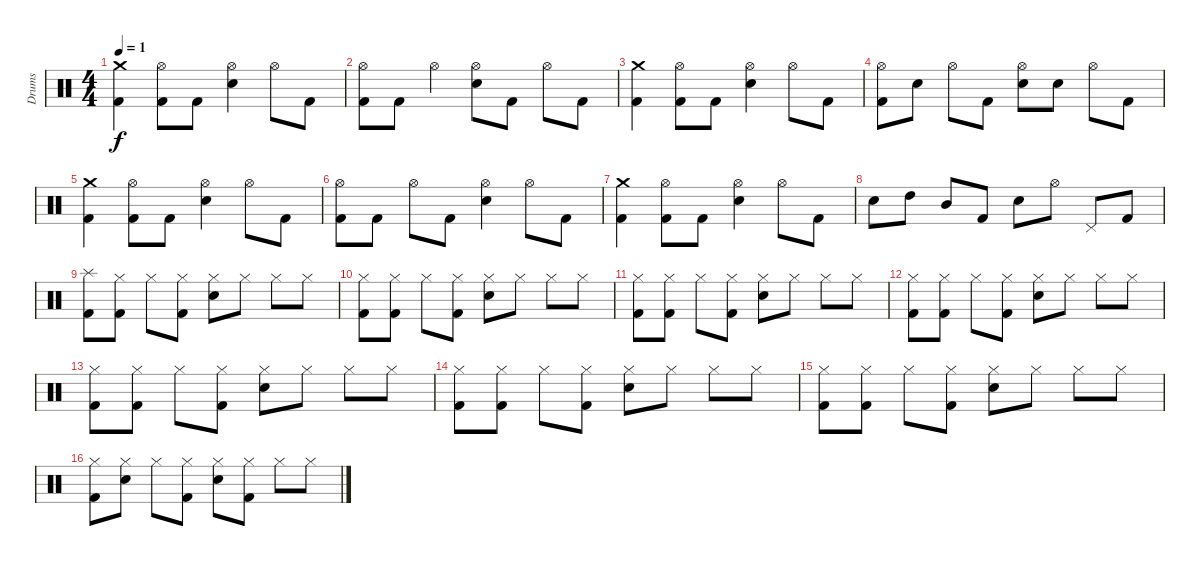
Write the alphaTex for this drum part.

\track ("Drums" "Drums") {instrument percussion}
\staff {score}
\articulation defaults
\ts (4 4)
\tempo 1
\clef neutral
\ks c
("Kick (hit) 2" "Crash medium (hit)").4{dy f} ("Hi-Hat (open)" "Kick (hit) 2").8 "Kick (hit) 2".8 ("Snare (hit) 2" "Hi-Hat (open)").4 "Hi-Hat (open)".8 "Kick (hit) 2".8 |
("Kick (hit) 2" "Hi-Hat (open)").8 "Kick (hit) 2".8 "Hi-Hat (open)".4 ("Snare (hit) 2" "Hi-Hat (open)").8 "Kick (hit) 2".8 "Hi-Hat (open)".8 "Kick (hit) 2".8 |
("Kick (hit) 2" "Crash medium (hit)").4 ("Hi-Hat (open)" "Kick (hit) 2").8 "Kick (hit) 2".8 ("Snare (hit) 2" "Hi-Hat (open)").4 "Hi-Hat (open)".8 "Kick (hit) 2".8 |
("Hi-Hat (open)" "Kick (hit) 2").8 "Snare (hit) 2".8 "Hi-Hat (open)".8 "Kick (hit) 2".8 ("Snare (hit) 2" "Hi-Hat (open)").8 "Snare (hit) 2".8 "Hi-Hat (open)".8 "Kick (hit) 2".8 |
("Kick (hit) 2" "Crash medium (hit)").4 ("Hi-Hat (open)" "Kick (hit) 2").8 "Kick (hit) 2".8 ("Snare (hit) 2" "Hi-Hat (open)").4 "Hi-Hat (open)".8 "Kick (hit) 2".8 |
("Kick (hit) 2" "Hi-Hat (open)").8 "Kick (hit) 2".8 "Hi-Hat (open)".8 "Kick (hit) 2".8 ("Snare (hit) 2" "Hi-Hat (open)").4 "Hi-Hat (open)".8 "Kick (hit) 2".8 |
("Kick (hit) 2" "Crash medium (hit)").4 ("Hi-Hat (open)" "Kick (hit) 2").8 "Kick (hit) 2".8 ("Snare (hit) 2" "Hi-Hat (open)").4 "Hi-Hat (open)".8 "Kick (hit) 2".8 |
"Snare (hit) 2".8 "High Tom (hit)".8 "Mid Tom (hit)".8 "Kick (hit) 2".8 "Snare (hit) 2".8 "Hi-Hat (open)".8 "Pedal Hi-Hat (hit)".8 "Kick (hit) 2".8 |
("Kick (hit) 2" "Splash (hit)").8 ("Hi-Hat (closed)" "Kick (hit) 2").8 "Hi-Hat (closed)".8 ("Hi-Hat (closed)" "Kick (hit) 2").8 ("Hi-Hat (closed)" "Snare (hit) 2").8 "Hi-Hat (closed)".8 "Hi-Hat (closed)".8 "Hi-Hat (closed)".8 |
("Hi-Hat (closed)" "Kick (hit) 2").8 ("Hi-Hat (closed)" "Kick (hit) 2").8 "Hi-Hat (closed)".8 ("Hi-Hat (closed)" "Kick (hit) 2").8 ("Hi-Hat (closed)" "Snare (hit) 2").8 "Hi-Hat (closed)".8 "Hi-Hat (closed)".8 "Hi-Hat (closed)".8 |
("Hi-Hat (closed)" "Kick (hit) 2").8 ("Hi-Hat (closed)" "Kick (hit) 2").8 "Hi-Hat (closed)".8 ("Hi-Hat (closed)" "Kick (hit) 2").8 ("Hi-Hat (closed)" "Snare (hit) 2").8 "Hi-Hat (closed)".8 "Hi-Hat (closed)".8 "Hi-Hat (closed)".8 |
("Hi-Hat (closed)" "Kick (hit) 2").8 ("Hi-Hat (closed)" "Kick (hit) 2").8 "Hi-Hat (closed)".8 ("Hi-Hat (closed)" "Kick (hit) 2").8 ("Hi-Hat (closed)" "Snare (hit) 2").8 "Hi-Hat (closed)".8 "Hi-Hat (closed)".8 "Hi-Hat (closed)".8 |
("Hi-Hat (closed)" "Kick (hit) 2").8 ("Hi-Hat (closed)" "Kick (hit) 2").8 "Hi-Hat (closed)".8 ("Hi-Hat (closed)" "Kick (hit) 2").8 ("Hi-Hat (closed)" "Snare (hit) 2").8 "Hi-Hat (closed)".8 "Hi-Hat (closed)".8 "Hi-Hat (closed)".8 |
("Hi-Hat (closed)" "Kick (hit) 2").8 ("Hi-Hat (closed)" "Kick (hit) 2").8 "Hi-Hat (closed)".8 ("Hi-Hat (closed)" "Kick (hit) 2").8 ("Hi-Hat (closed)" "Snare (hit) 2").8 "Hi-Hat (closed)".8 "Hi-Hat (closed)".8 "Hi-Hat (closed)".8 |
("Hi-Hat (closed)" "Kick (hit) 2").8 ("Hi-Hat (closed)" "Kick (hit) 2").8 "Hi-Hat (closed)".8 ("Hi-Hat (closed)" "Kick (hit) 2").8 ("Hi-Hat (closed)" "Snare (hit) 2").8 "Hi-Hat (closed)".8 "Hi-Hat (closed)".8 "Hi-Hat (closed)".8 |
("Hi-Hat (closed)" "Kick (hit) 2").8 ("Hi-Hat (closed)" "Snare (hit) 2").8 "Hi-Hat (closed)".8 ("Hi-Hat (closed)" "Kick (hit) 2").8 ("Hi-Hat (closed)" "Snare (hit) 2").8 ("Hi-Hat (closed)" "Kick (hit) 2").8 "Hi-Hat (closed)".8 "Hi-Hat (closed)".8
